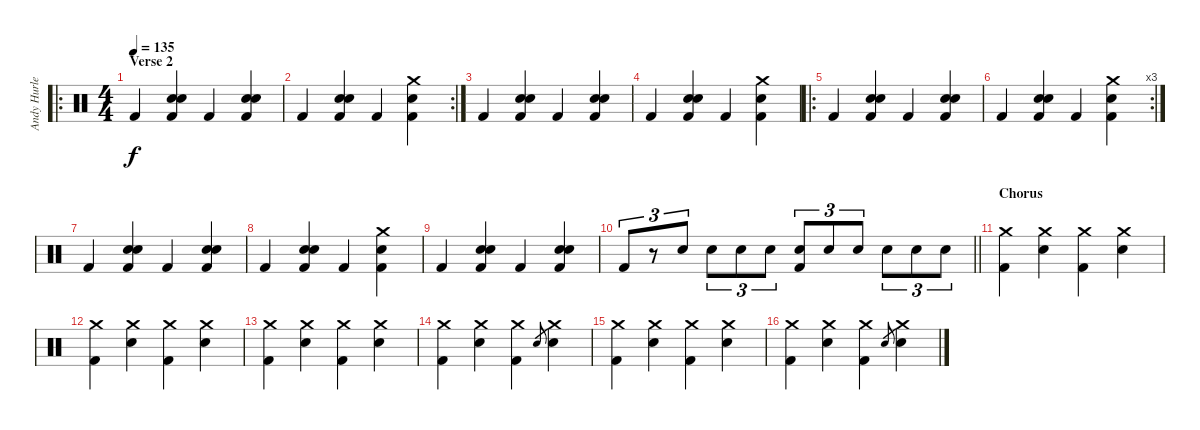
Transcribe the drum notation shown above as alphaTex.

\track ("Andy Hurley" "Andy Hurle") {instrument percussion}
\staff {score}
\articulation defaults
\ro
\ts (4 4)
\section ("" "Verse 2")
\tempo 135
\clef neutral
\ks c "Kick (hit) 2".4{dy f}
("Electric Snare (hit)" "Electric Snare (hit)" "Kick (hit) 2").4 "Kick (hit) 2".4 ("Electric Snare (hit)" "Electric Snare (hit)" "Kick (hit) 2").4 |
\rc 2 "Kick (hit) 2".4
("Electric Snare (hit)" "Electric Snare (hit)" "Kick (hit) 2").4 "Kick (hit) 2".4 ("Crash medium (hit)" "Electric Snare (hit)" "Kick (hit) 2").4 |
"Kick (hit) 2".4 ("Electric Snare (hit)" "Electric Snare (hit)" "Kick (hit) 2").4 "Kick (hit) 2".4 ("Electric Snare (hit)" "Electric Snare (hit)" "Kick (hit) 2").4 |
"Kick (hit) 2".4 ("Electric Snare (hit)" "Electric Snare (hit)" "Kick (hit) 2").4 "Kick (hit) 2".4 ("Crash medium (hit)" "Electric Snare (hit)" "Kick (hit) 2").4 |
\ro "Kick (hit) 2".4
("Electric Snare (hit)" "Electric Snare (hit)" "Kick (hit) 2").4 "Kick (hit) 2".4 ("Electric Snare (hit)" "Electric Snare (hit)" "Kick (hit) 2").4 |
\rc 3 "Kick (hit) 2".4
("Electric Snare (hit)" "Electric Snare (hit)" "Kick (hit) 2").4 "Kick (hit) 2".4 ("Crash medium (hit)" "Electric Snare (hit)" "Kick (hit) 2").4 |
"Kick (hit) 2".4 ("Electric Snare (hit)" "Electric Snare (hit)" "Kick (hit) 2").4 "Kick (hit) 2".4 ("Electric Snare (hit)" "Electric Snare (hit)" "Kick (hit) 2").4 |
"Kick (hit) 2".4 ("Electric Snare (hit)" "Electric Snare (hit)" "Kick (hit) 2").4 "Kick (hit) 2".4 ("Crash medium (hit)" "Electric Snare (hit)" "Kick (hit) 2").4 |
"Kick (hit) 2".4 ("Electric Snare (hit)" "Electric Snare (hit)" "Kick (hit) 2").4 "Kick (hit) 2".4 ("Electric Snare (hit)" "Electric Snare (hit)" "Kick (hit) 2").4 |
\barLineRight lightlight "Kick (hit) 2".8{tu (3 2)}
r.8{tu (3 2)} "Electric Snare (hit)".8{tu (3 2)} "Electric Snare (hit)".8{tu (3 2)} "Electric Snare (hit)".8{tu (3 2)} "Electric Snare (hit)".8{tu (3 2)} ("Electric Snare (hit)" "Kick (hit) 2").8{tu (3 2)} "Electric Snare (hit)".8{tu (3 2)} "Electric Snare (hit)".8{tu (3 2)} "Electric Snare (hit)".8{tu (3 2)} "Electric Snare (hit)".8{tu (3 2)} "Electric Snare (hit)".8{tu (3 2)} |
\section ("" "Chorus")
("Crash medium (hit)" "Kick (hit) 2").4 ("Crash medium (hit)" "Electric Snare (hit)").4 ("Crash medium (hit)" "Kick (hit) 2").4 ("Crash medium (hit)" "Electric Snare (hit)").4 |
("Crash medium (hit)" "Kick (hit) 2").4 ("Crash medium (hit)" "Electric Snare (hit)").4 ("Crash medium (hit)" "Kick (hit) 2").4 ("Crash medium (hit)" "Electric Snare (hit)").4 |
("Crash medium (hit)" "Kick (hit) 2").4 ("Crash medium (hit)" "Electric Snare (hit)").4 ("Crash medium (hit)" "Kick (hit) 2").4 ("Crash medium (hit)" "Electric Snare (hit)").4 |
("Crash medium (hit)" "Kick (hit) 2").4 ("Crash medium (hit)" "Electric Snare (hit)").4 ("Crash medium (hit)" "Kick (hit) 2").4 "Electric Snare (hit)".8{gr} ("Crash medium (hit)" "Electric Snare (hit)").4 |
("Crash medium (hit)" "Kick (hit) 2").4 ("Crash medium (hit)" "Electric Snare (hit)").4 ("Crash medium (hit)" "Kick (hit) 2").4 ("Crash medium (hit)" "Electric Snare (hit)").4 |
("Crash medium (hit)" "Kick (hit) 2").4 ("Crash medium (hit)" "Electric Snare (hit)").4 ("Crash medium (hit)" "Kick (hit) 2").4 "Electric Snare (hit)".8{gr} ("Crash medium (hit)" "Electric Snare (hit)").4
